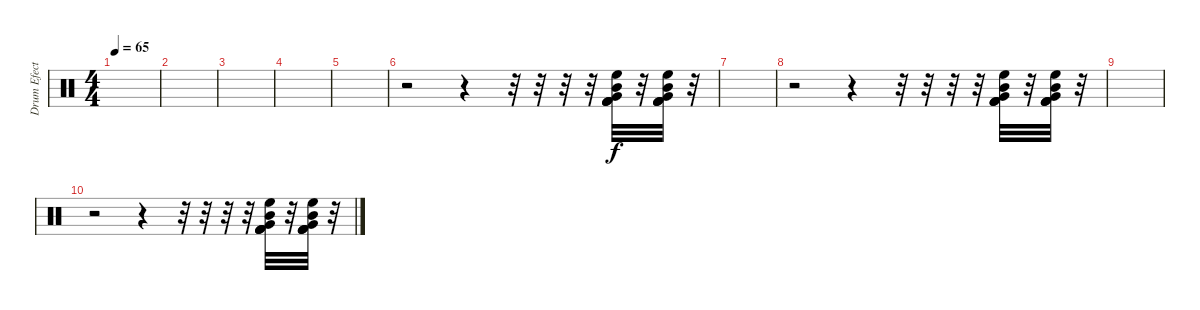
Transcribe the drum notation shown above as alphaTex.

\track ("Drum Efect" "Drum Efect") {instrument percussion}
\staff {score}
\articulation defaults
\ts (4 4)
\tempo 65
\clef neutral
\ks c
|
|
|
|
|
r.2 r.4 r.32 r.32 r.32 r.32 ("Kick (hit) 2" "Very Low Tom (hit)" "Kick (hit) 2" "Mid Tom (hit)" "High Floor Tom (hit)" "Kick (hit) 2").32 r.32 ("Kick (hit) 2" "Very Low Tom (hit)" "Kick (hit) 2" "Mid Tom (hit)" "High Floor Tom (hit)" "Kick (hit) 2").32 r.32 |
|
r.2 r.4 r.32 r.32 r.32 r.32 ("Kick (hit) 2" "Very Low Tom (hit)" "Kick (hit) 2" "Mid Tom (hit)" "High Floor Tom (hit)" "Kick (hit) 2").32 r.32 ("Kick (hit) 2" "Very Low Tom (hit)" "Kick (hit) 2" "Mid Tom (hit)" "High Floor Tom (hit)" "Kick (hit) 2").32 r.32 |
|
r.2 r.4 r.32 r.32 r.32 r.32 ("Kick (hit) 2" "Very Low Tom (hit)" "Kick (hit) 2" "Mid Tom (hit)" "High Floor Tom (hit)" "Kick (hit) 2").32 r.32 ("Kick (hit) 2" "Very Low Tom (hit)" "Kick (hit) 2" "Mid Tom (hit)" "High Floor Tom (hit)" "Kick (hit) 2").32 r.32
